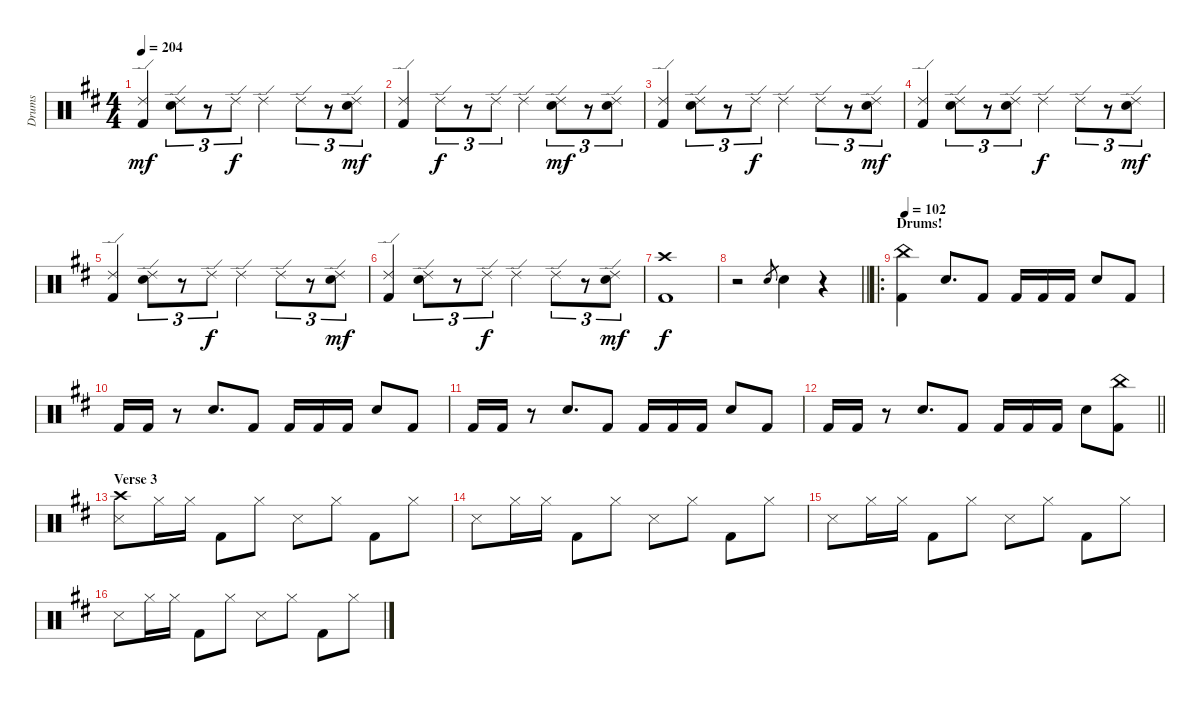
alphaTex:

\track ("Drums" "Drums") {instrument percussion}
\staff {score}
\articulation defaults
\ts (4 4)
\tempo 204
\clef neutral
\ks d
("Ride (edge) 2" "Kick (hit) 2").4{dy mf} ("Ride (edge) 2" "Snare (hit) 2").8{tu (3 2)} r.8{tu (3 2)} "Ride (edge) 2".8{tu (3 2) dy f} "Ride (edge) 2".4 "Ride (edge) 2".8{tu (3 2)} r.8{tu (3 2)} ("Ride (edge) 2" "Snare (hit) 2").8{tu (3 2) dy mf} |
("Ride (edge) 2" "Kick (hit) 2").4 "Ride (edge) 2".8{tu (3 2) dy f} r.8{tu (3 2)} "Ride (edge) 2".8{tu (3 2)} "Ride (edge) 2".4 ("Ride (edge) 2" "Snare (hit) 2").8{tu (3 2) dy mf} r.8{tu (3 2)} ("Ride (edge) 2" "Snare (hit) 2").8{tu (3 2)} |
("Ride (edge) 2" "Kick (hit) 2").4 ("Ride (edge) 2" "Snare (hit) 2").8{tu (3 2)} r.8{tu (3 2)} "Ride (edge) 2".8{tu (3 2) dy f} "Ride (edge) 2".4 "Ride (edge) 2".8{tu (3 2)} r.8{tu (3 2)} ("Ride (edge) 2" "Snare (hit) 2").8{tu (3 2) dy mf} |
("Ride (edge) 2" "Kick (hit) 2").4 ("Ride (edge) 2" "Snare (hit) 2").8{tu (3 2)} r.8{tu (3 2)} ("Ride (edge) 2" "Snare (hit) 2").8{tu (3 2)} "Ride (edge) 2".4{dy f} "Ride (edge) 2".8{tu (3 2)} r.8{tu (3 2)} ("Ride (edge) 2" "Snare (hit) 2").8{tu (3 2) dy mf} |
("Ride (edge) 2" "Kick (hit) 2").4 ("Ride (edge) 2" "Snare (hit) 2").8{tu (3 2)} r.8{tu (3 2)} "Ride (edge) 2".8{tu (3 2) dy f} "Ride (edge) 2".4 "Ride (edge) 2".8{tu (3 2)} r.8{tu (3 2)} ("Ride (edge) 2" "Snare (hit) 2").8{tu (3 2) dy mf} |
("Ride (edge) 2" "Kick (hit) 2").4 ("Ride (edge) 2" "Snare (hit) 2").8{tu (3 2)} r.8{tu (3 2)} "Ride (edge) 2".8{tu (3 2) dy f} "Ride (edge) 2".4 "Ride (edge) 2".8{tu (3 2)} r.8{tu (3 2)} ("Ride (edge) 2" "Snare (hit) 2").8{tu (3 2) dy mf} |
("Crash high (hit)" "Kick (hit) 2").1{dy f} |
\barLineRight lightlight
r.2 "Snare (hit) 2".8{gr} "Snare (hit) 2".4 r.4 |
\ro
\section ("" "Drums!")
\tempo 102
("China (hit)" "Kick (hit) 2").4 "Snare (hit) 2".8{d} "Kick (hit) 2".8 "Kick (hit) 2".16 "Kick (hit) 2".16 "Kick (hit) 2".16 "Snare (hit) 2".8 "Kick (hit) 2".8 |
"Kick (hit) 2".16 "Kick (hit) 2".16 r.8 "Snare (hit) 2".8{d} "Kick (hit) 2".8 "Kick (hit) 2".16 "Kick (hit) 2".16 "Kick (hit) 2".16 "Snare (hit) 2".8 "Kick (hit) 2".8 |
"Kick (hit) 2".16 "Kick (hit) 2".16 r.8 "Snare (hit) 2".8{d} "Kick (hit) 2".8 "Kick (hit) 2".16 "Kick (hit) 2".16 "Kick (hit) 2".16 "Snare (hit) 2".8 "Kick (hit) 2".8 |
\barLineRight lightlight "Kick (hit) 2".16 "Kick (hit) 2".16
r.8 "Snare (hit) 2".8{d} "Kick (hit) 2".8 "Kick (hit) 2".16 "Kick (hit) 2".16 "Kick (hit) 2".16 "Snare (hit) 2".8 ("China (hit)" "Kick (hit) 2").8 |
\section ("" "Verse 3")
("Snare (side stick) 3" "Crash high (hit)").8 "Hi-Hat (closed)".16 "Hi-Hat (closed)".16 "Kick (hit) 2".8 "Hi-Hat (closed)".8 "Snare (side stick) 3".8 "Hi-Hat (closed)".8 "Kick (hit) 2".8 "Hi-Hat (closed)".8 |
"Snare (side stick) 3".8 "Hi-Hat (closed)".16 "Hi-Hat (closed)".16 "Kick (hit) 2".8 "Hi-Hat (closed)".8 "Snare (side stick) 3".8 "Hi-Hat (closed)".8 "Kick (hit) 2".8 "Hi-Hat (closed)".8 |
"Snare (side stick) 3".8 "Hi-Hat (closed)".16 "Hi-Hat (closed)".16 "Kick (hit) 2".8 "Hi-Hat (closed)".8 "Snare (side stick) 3".8 "Hi-Hat (closed)".8 "Kick (hit) 2".8 "Hi-Hat (closed)".8 |
"Snare (side stick) 3".8 "Hi-Hat (closed)".16 "Hi-Hat (closed)".16 "Kick (hit) 2".8 "Hi-Hat (closed)".8 "Snare (side stick) 3".8 "Hi-Hat (closed)".8 "Kick (hit) 2".8 "Hi-Hat (closed)".8
